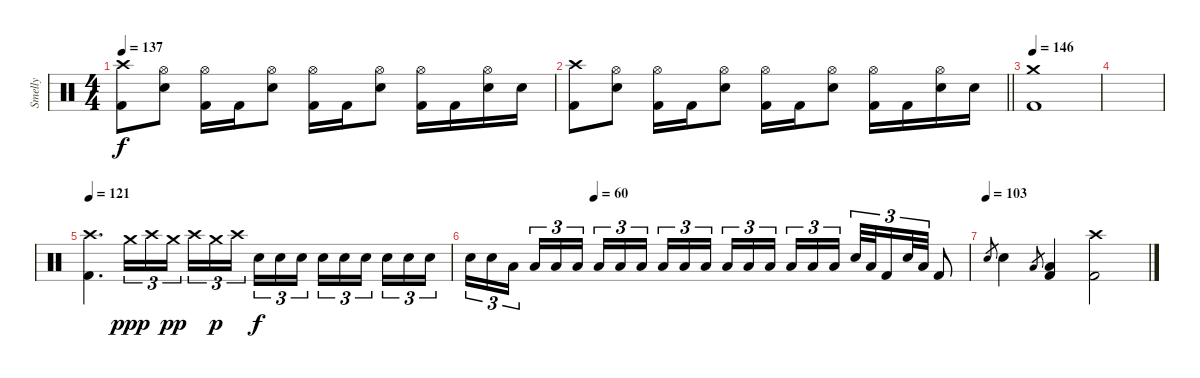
\track ("Smelly" "Smelly") {instrument percussion}
\staff {score}
\articulation defaults
\ts (4 4)
\tempo 137
\clef neutral
\ks c
("Crash high (hit)" "Kick (hit) 2").8{dy f} ("Hi-Hat (open)" "Electric Snare (hit)").8 ("Hi-Hat (open)" "Kick (hit) 2").16 "Kick (hit) 2".16 ("Hi-Hat (open)" "Electric Snare (hit)").8 ("Hi-Hat (open)" "Kick (hit) 2").16 "Kick (hit) 2".16 ("Hi-Hat (open)" "Electric Snare (hit)").8 ("Hi-Hat (open)" "Kick (hit) 2").16 "Kick (hit) 2".16 ("Hi-Hat (open)" "Electric Snare (hit)").16 "Electric Snare (hit)".16 |
\barLineRight lightlight
("Crash high (hit)" "Kick (hit) 2").8 ("Hi-Hat (open)" "Electric Snare (hit)").8 ("Hi-Hat (open)" "Kick (hit) 2").16 "Kick (hit) 2".16 ("Hi-Hat (open)" "Electric Snare (hit)").8 ("Hi-Hat (open)" "Kick (hit) 2").16 "Kick (hit) 2".16 ("Hi-Hat (open)" "Electric Snare (hit)").8 ("Hi-Hat (open)" "Kick (hit) 2").16 "Kick (hit) 2".16 ("Hi-Hat (open)" "Electric Snare (hit)").16 "Electric Snare (hit)".16 |
\section ("" "")
\tempo 146
("Crash medium (hit)" "Kick (hit) 2").1 |
|
\tempo 121
("Crash high (hit)" "Kick (hit) 2").4{d} "Crash medium (hit)".16{tu (3 2) dy ppp} "Crash high (hit)".16{tu (3 2)} "Crash medium (hit)".16{tu (3 2) dy pp} "Crash high (hit)".16{tu (3 2)} "Crash medium (hit)".16{tu (3 2) dy p} "Crash high (hit)".16{tu (3 2) beam splitsecondary} "Electric Snare (hit)".16{tu (3 2) dy f} "Electric Snare (hit)".16{tu (3 2)} "Electric Snare (hit)".16{tu (3 2)} "Electric Snare (hit)".16{tu (3 2)} "Electric Snare (hit)".16{tu (3 2)} "Electric Snare (hit)".16{tu (3 2) beam splitsecondary} "Electric Snare (hit)".16{tu (3 2)} "Electric Snare (hit)".16{tu (3 2)} "Electric Snare (hit)".16{tu (3 2)} |
\tempo (60 0.25)
"Electric Snare (hit)".16{tu (3 2)} "Electric Snare (hit)".16{tu (3 2)} "Low Tom (hit)".16{tu (3 2) beam splitsecondary} "Low Tom (hit)".16{tu (3 2)} "Low Tom (hit)".16{tu (3 2)} "Low Tom (hit)".16{tu (3 2)} "Low Tom (hit)".16{tu (3 2)} "Low Tom (hit)".16{tu (3 2)} "Low Tom (hit)".16{tu (3 2) beam splitsecondary} "Low Tom (hit)".16{tu (3 2)} "Low Tom (hit)".16{tu (3 2)} "Low Tom (hit)".16{tu (3 2)} "Low Floor Tom (hit)".16{tu (3 2)} "Low Floor Tom (hit)".16{tu (3 2)} "Low Floor Tom (hit)".16{tu (3 2) beam splitsecondary} "Low Floor Tom (hit)".16{tu (3 2)} "Low Floor Tom (hit)".16{tu (3 2)} "Low Floor Tom (hit)".16{tu (3 2)} "Electric Snare (hit)".32{tu (3 2)} "Low Tom (hit)".32{tu (3 2)} "Kick (hit) 2".16{tu (3 2)} "Electric Snare (hit)".32{tu (3 2)} "Low Tom (hit)".32{tu (3 2)} "Kick (hit) 2".8 |
\tempo (103)
"Electric Snare (hit)".8{gr} "Electric Snare (hit)".4 "Low Tom (hit)".8{gr} ("Low Floor Tom (hit)" "Kick (hit) 2").4 ("Crash high (hit)" "Kick (hit) 2").2
